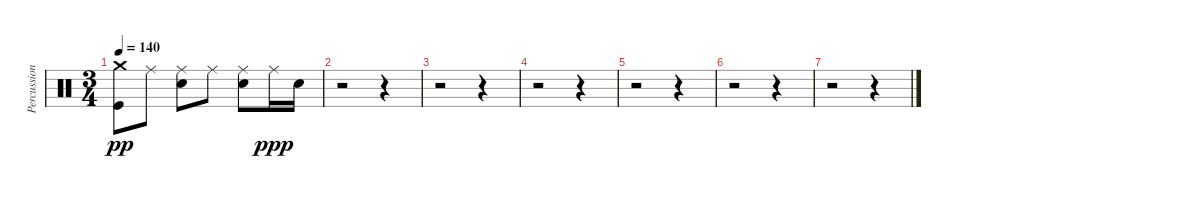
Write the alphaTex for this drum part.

\track ("Percussion" "Percussion") {instrument percussion}
\staff {score}
\articulation defaults
\ts (3 4)
\tempo 140
\clef neutral
\ks c
("Crash medium (hit)" "Kick (hit)").8{dy pp} "Ride (middle)".8 ("Ride (middle)" "Electric Snare (hit)").8 "Ride (middle)".8 ("Ride (middle)" "Electric Snare (hit)").8 "Ride (middle)".16{dy ppp} "Electric Snare (hit)".16 |
r.2 r.4 |
r.2 r.4 |
r.2 r.4 |
r.2 r.4 |
r.2 r.4 |
r.2 r.4
